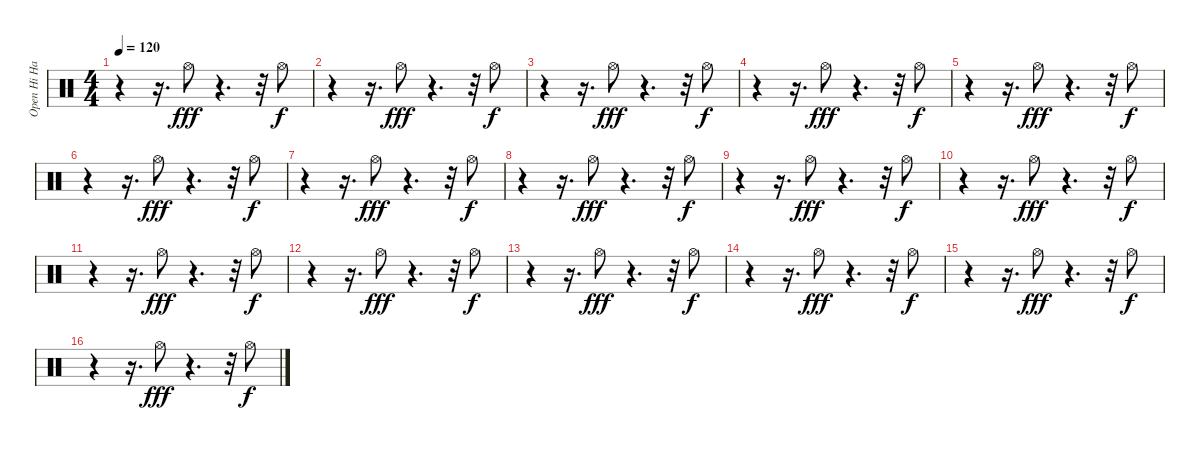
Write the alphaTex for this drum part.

\track ("Open Hi Hat         " "Open Hi Ha") {instrument percussion}
\staff {score}
\articulation defaults
\ts (4 4)
\tempo 120
\clef neutral
\ks c
r.4{dy f} r.16{d} "Hi-Hat (open)".8{dy fff} r.4{d} r.32 "Hi-Hat (open)".8{dy f} |
r.4 r.16{d} "Hi-Hat (open)".8{dy fff} r.4{d} r.32 "Hi-Hat (open)".8{dy f} |
r.4 r.16{d} "Hi-Hat (open)".8{dy fff} r.4{d} r.32 "Hi-Hat (open)".8{dy f} |
r.4 r.16{d} "Hi-Hat (open)".8{dy fff} r.4{d} r.32 "Hi-Hat (open)".8{dy f} |
r.4 r.16{d} "Hi-Hat (open)".8{dy fff} r.4{d} r.32 "Hi-Hat (open)".8{dy f} |
r.4 r.16{d} "Hi-Hat (open)".8{dy fff} r.4{d} r.32 "Hi-Hat (open)".8{dy f} |
r.4 r.16{d} "Hi-Hat (open)".8{dy fff} r.4{d} r.32 "Hi-Hat (open)".8{dy f} |
r.4 r.16{d} "Hi-Hat (open)".8{dy fff} r.4{d} r.32 "Hi-Hat (open)".8{dy f} |
r.4 r.16{d} "Hi-Hat (open)".8{dy fff} r.4{d} r.32 "Hi-Hat (open)".8{dy f} |
r.4 r.16{d} "Hi-Hat (open)".8{dy fff} r.4{d} r.32 "Hi-Hat (open)".8{dy f} |
r.4 r.16{d} "Hi-Hat (open)".8{dy fff} r.4{d} r.32 "Hi-Hat (open)".8{dy f} |
r.4 r.16{d} "Hi-Hat (open)".8{dy fff} r.4{d} r.32 "Hi-Hat (open)".8{dy f} |
r.4 r.16{d} "Hi-Hat (open)".8{dy fff} r.4{d} r.32 "Hi-Hat (open)".8{dy f} |
r.4 r.16{d} "Hi-Hat (open)".8{dy fff} r.4{d} r.32 "Hi-Hat (open)".8{dy f} |
r.4 r.16{d} "Hi-Hat (open)".8{dy fff} r.4{d} r.32 "Hi-Hat (open)".8{dy f} |
r.4 r.16{d} "Hi-Hat (open)".8{dy fff} r.4{d} r.32 "Hi-Hat (open)".8{dy f}
